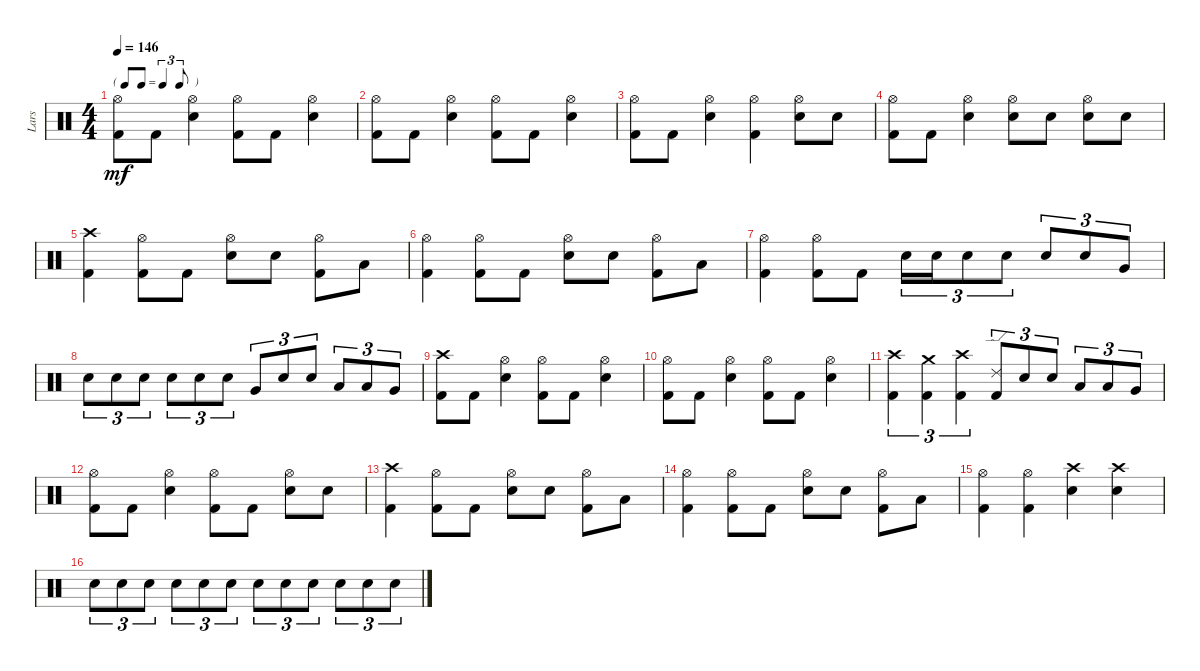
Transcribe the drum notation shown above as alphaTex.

\track ("Lars" "Lars") {instrument percussion}
\staff {score}
\articulation defaults
\ts (4 4)
\tf triplet8th
\tempo 146
\clef neutral
\ks c
("Hi-Hat (open)" "Kick (hit) 2").8{dy mf} "Kick (hit) 2".8 ("Hi-Hat (open)" "Electric Snare (hit)").4 ("Hi-Hat (open)" "Kick (hit) 2").8 "Kick (hit) 2".8 ("Hi-Hat (open)" "Electric Snare (hit)").4 |
("Hi-Hat (open)" "Kick (hit) 2").8 "Kick (hit) 2".8 ("Hi-Hat (open)" "Electric Snare (hit)").4 ("Hi-Hat (open)" "Kick (hit) 2").8 "Kick (hit) 2".8 ("Hi-Hat (open)" "Electric Snare (hit)").4 |
("Hi-Hat (open)" "Kick (hit) 2").8 "Kick (hit) 2".8 ("Hi-Hat (open)" "Electric Snare (hit)").4 ("Hi-Hat (open)" "Kick (hit) 2").4 ("Hi-Hat (open)" "Electric Snare (hit)").8 "Electric Snare (hit)".8 |
("Hi-Hat (open)" "Kick (hit) 2").8 "Kick (hit) 2".8 ("Hi-Hat (open)" "Electric Snare (hit)").4 ("Hi-Hat (open)" "Electric Snare (hit)").8 "Electric Snare (hit)".8 ("Hi-Hat (open)" "Electric Snare (hit)").8 "Electric Snare (hit)".8 |
("Crash high (hit)" "Kick (hit) 2").4 ("Hi-Hat (open)" "Kick (hit) 2").8 "Kick (hit) 2".8 ("Hi-Hat (open)" "Electric Snare (hit)").8 "Electric Snare (hit)".8 ("Hi-Hat (open)" "Kick (hit) 2").8 "Low Tom (hit)".8 |
("Hi-Hat (open)" "Kick (hit) 2").4 ("Hi-Hat (open)" "Kick (hit) 2").8 "Kick (hit) 2".8 ("Hi-Hat (open)" "Electric Snare (hit)").8 "Electric Snare (hit)".8 ("Hi-Hat (open)" "Kick (hit) 2").8 "Low Tom (hit)".8 |
("Hi-Hat (open)" "Kick (hit) 2").4 ("Hi-Hat (open)" "Kick (hit) 2").8 "Kick (hit) 2".8 "Electric Snare (hit)".16{tu (3 2)} "Electric Snare (hit)".16{tu (3 2)} "Electric Snare (hit)".8{tu (3 2)} "Electric Snare (hit)".8{tu (3 2)} "Electric Snare (hit)".8{tu (3 2)} "Electric Snare (hit)".8{tu (3 2)} "Very Low Tom (hit)".8{tu (3 2)} |
"Electric Snare (hit)".8{tu (3 2)} "Electric Snare (hit)".8{tu (3 2)} "Electric Snare (hit)".8{tu (3 2)} "Electric Snare (hit)".8{tu (3 2)} "Electric Snare (hit)".8{tu (3 2)} "Electric Snare (hit)".8{tu (3 2)} "Very Low Tom (hit)".8{tu (3 2)} "Electric Snare (hit)".8{tu (3 2)} "Electric Snare (hit)".8{tu (3 2)} "Low Tom (hit)".8{tu (3 2)} "Low Tom (hit)".8{tu (3 2)} "Very Low Tom (hit)".8{tu (3 2)} |
("Crash high (hit)" "Kick (hit) 2").8 "Kick (hit) 2".8 ("Hi-Hat (open)" "Electric Snare (hit)").4 ("Hi-Hat (open)" "Kick (hit) 2").8 "Kick (hit) 2".8 ("Hi-Hat (open)" "Electric Snare (hit)").4 |
("Hi-Hat (open)" "Kick (hit) 2").8 "Kick (hit) 2".8 ("Hi-Hat (open)" "Electric Snare (hit)").4 ("Hi-Hat (open)" "Kick (hit) 2").8 "Kick (hit) 2".8 ("Hi-Hat (open)" "Electric Snare (hit)").4 |
("Crash high (hit)" "Kick (hit) 2").4{tu (3 2)} ("Crash medium (hit)" "Kick (hit) 2").4{tu (3 2)} ("Crash high (hit)" "Kick (hit) 2").4{tu (3 2)} ("Ride (edge) 2" "Kick (hit) 2").8{tu (3 2)} "Electric Snare (hit)".8{tu (3 2)} "Electric Snare (hit)".8{tu (3 2)} "Low Tom (hit)".8{tu (3 2)} "Low Tom (hit)".8{tu (3 2)} "Very Low Tom (hit)".8{tu (3 2)} |
("Hi-Hat (open)" "Kick (hit) 2").8 "Kick (hit) 2".8 ("Hi-Hat (open)" "Electric Snare (hit)").4 ("Hi-Hat (open)" "Kick (hit) 2").8 "Kick (hit) 2".8 ("Hi-Hat (open)" "Electric Snare (hit)").8 "Electric Snare (hit)".8 |
("Crash high (hit)" "Kick (hit) 2").4 ("Hi-Hat (open)" "Kick (hit) 2").8 "Kick (hit) 2".8 ("Hi-Hat (open)" "Electric Snare (hit)").8 "Electric Snare (hit)".8 ("Hi-Hat (open)" "Kick (hit) 2").8 "Low Tom (hit)".8 |
("Hi-Hat (open)" "Kick (hit) 2").4 ("Hi-Hat (open)" "Kick (hit) 2").8 "Kick (hit) 2".8 ("Hi-Hat (open)" "Electric Snare (hit)").8 "Electric Snare (hit)".8 ("Hi-Hat (open)" "Kick (hit) 2").8 "Low Tom (hit)".8 |
("Hi-Hat (open)" "Kick (hit) 2").4 ("Hi-Hat (open)" "Kick (hit) 2").4 ("Crash high (hit)" "Electric Snare (hit)").4 ("Crash high (hit)" "Electric Snare (hit)").4 |
"Electric Snare (hit)".8{tu (3 2)} "Electric Snare (hit)".8{tu (3 2)} "Electric Snare (hit)".8{tu (3 2)} "Electric Snare (hit)".8{tu (3 2)} "Electric Snare (hit)".8{tu (3 2)} "Electric Snare (hit)".8{tu (3 2)} "Electric Snare (hit)".8{tu (3 2)} "Electric Snare (hit)".8{tu (3 2)} "Electric Snare (hit)".8{tu (3 2)} "Electric Snare (hit)".8{tu (3 2)} "Electric Snare (hit)".8{tu (3 2)} "Electric Snare (hit)".8{tu (3 2)}
